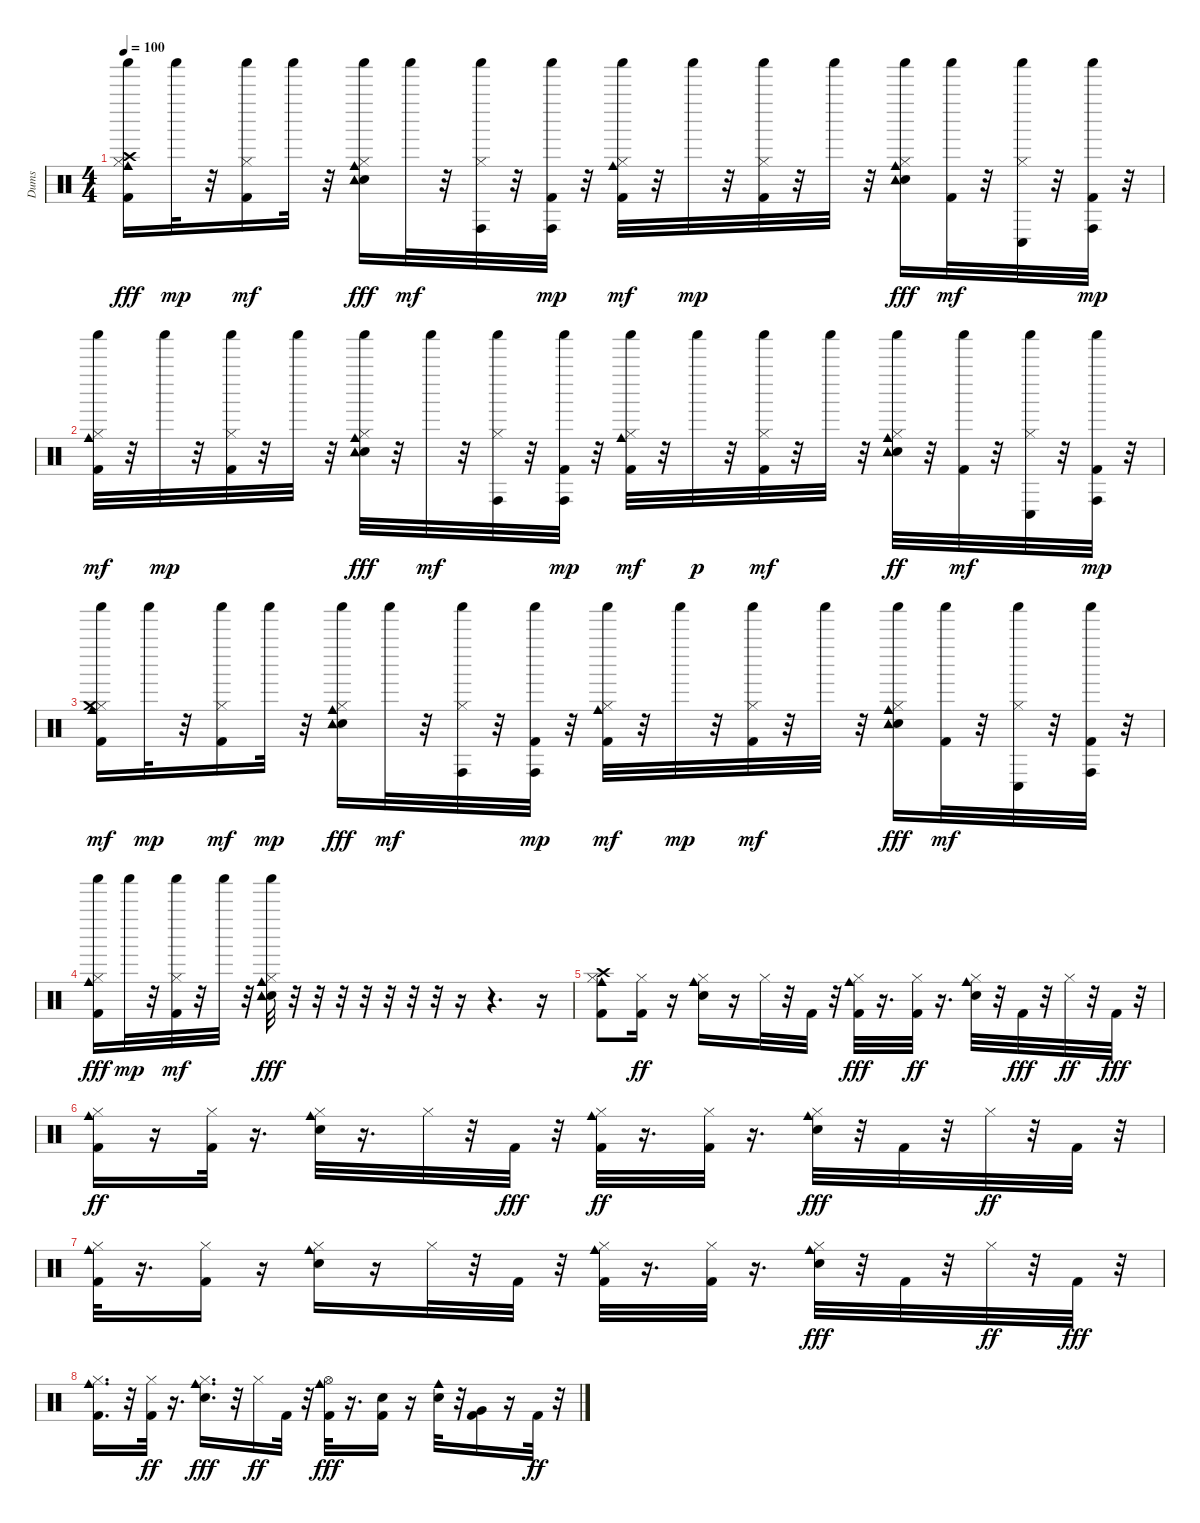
\track ("Dums" "Dums") {instrument percussion}
\staff {score}
\articulation defaults
\ts (4 4)
\tempo 100
\clef neutral
\ks c
("Kick (hit) 2" "Hi-Hat (closed)" "Cowbell medium (hit)" "Crash high (hit)" "Shaker (hit)").16{dy fff} "Shaker (hit)".32{dy mp} r.32 ("Kick (hit) 2" "Hi-Hat (closed)" "Shaker (hit)").16{dy mf} "Shaker (hit)".32 r.32 ("Electric Snare (hit)" "Hi-Hat (closed)" "Cowbell medium (hit)" "Shaker (hit)" "Tambourine (hit)").16{dy fff} "Shaker (hit)".32{dy mf} r.32 ("Hi-Hat (closed)" "Conga high (hit)" "Shaker (hit)").32 r.32 ("Kick (hit) 2" "Conga high (hit)" "Shaker (hit)").32{dy mp} r.32 ("Kick (hit) 2" "Hi-Hat (closed)" "Cowbell medium (hit)" "Shaker (hit)").32{dy mf} r.32 "Shaker (hit)".32{dy mp} r.32 ("Kick (hit) 2" "Hi-Hat (closed)" "Shaker (hit)").32 r.32 "Shaker (hit)".32 r.32 ("Electric Snare (hit)" "Hi-Hat (closed)" "Cowbell medium (hit)" "Shaker (hit)" "Tambourine (hit)").16{dy fff} ("Kick (hit) 2" "Shaker (hit)").32{dy mf} r.32 ("Hi-Hat (closed)" "Conga low (hit)" "Shaker (hit)").32 r.32 ("Kick (hit) 2" "Conga high (hit)" "Shaker (hit)").32{dy mp} r.32 |
("Kick (hit) 2" "Hi-Hat (closed)" "Cowbell medium (hit)" "Shaker (hit)").32{dy mf} r.32 "Shaker (hit)".32{dy mp} r.32 ("Kick (hit) 2" "Hi-Hat (closed)" "Shaker (hit)").32 r.32 "Shaker (hit)".32 r.32 ("Electric Snare (hit)" "Hi-Hat (closed)" "Cowbell medium (hit)" "Shaker (hit)" "Tambourine (hit)").32{dy fff} r.32 "Shaker (hit)".32{dy mf} r.32 ("Hi-Hat (closed)" "Conga high (hit)" "Shaker (hit)").32 r.32 ("Kick (hit) 2" "Conga high (hit)" "Shaker (hit)").32{dy mp} r.32 ("Kick (hit) 2" "Hi-Hat (closed)" "Cowbell medium (hit)" "Shaker (hit)").32{dy mf} r.32 "Shaker (hit)".32{dy p} r.32 ("Kick (hit) 2" "Hi-Hat (closed)" "Shaker (hit)").32{dy mf} r.32 "Shaker (hit)".32 r.32 ("Electric Snare (hit)" "Hi-Hat (closed)" "Cowbell medium (hit)" "Shaker (hit)" "Tambourine (hit)").32{dy ff} r.32 ("Kick (hit) 2" "Shaker (hit)").32{dy mf} r.32 ("Hi-Hat (closed)" "Conga low (hit)" "Shaker (hit)").32 r.32 ("Kick (hit) 2" "Conga high (hit)" "Shaker (hit)").32{dy mp} r.32 |
("Kick (hit) 2" "Hi-Hat (closed)" "Cowbell medium (hit)" "Crash medium (hit)" "Shaker (hit)").16{dy mf} "Shaker (hit)".32{dy mp} r.32 ("Kick (hit) 2" "Hi-Hat (closed)" "Shaker (hit)").16{dy mf} "Shaker (hit)".32{dy mp} r.32 ("Electric Snare (hit)" "Hi-Hat (closed)" "Cowbell medium (hit)" "Shaker (hit)" "Tambourine (hit)").16{dy fff} "Shaker (hit)".32{dy mf} r.32 ("Hi-Hat (closed)" "Conga high (hit)" "Shaker (hit)").32 r.32 ("Kick (hit) 2" "Conga high (hit)" "Shaker (hit)").32{dy mp} r.32 ("Kick (hit) 2" "Hi-Hat (closed)" "Cowbell medium (hit)" "Shaker (hit)").32{dy mf} r.32 "Shaker (hit)".32{dy mp} r.32 ("Kick (hit) 2" "Hi-Hat (closed)" "Shaker (hit)").32{dy mf} r.32 "Shaker (hit)".32 r.32 ("Electric Snare (hit)" "Hi-Hat (closed)" "Cowbell medium (hit)" "Shaker (hit)" "Tambourine (hit)").16{dy fff} ("Kick (hit) 2" "Shaker (hit)").32{dy mf} r.32 ("Hi-Hat (closed)" "Conga low (hit)" "Shaker (hit)").32 r.32 ("Kick (hit) 2" "Conga high (hit)" "Shaker (hit)").32 r.32 |
("Kick (hit) 2" "Hi-Hat (closed)" "Cowbell medium (hit)" "Shaker (hit)").16{dy fff} "Shaker (hit)".32{dy mp} r.32 ("Kick (hit) 2" "Hi-Hat (closed)" "Shaker (hit)").32{dy mf} r.32 "Shaker (hit)".32 r.32 ("Electric Snare (hit)" "Hi-Hat (closed)" "Cowbell medium (hit)" "Shaker (hit)" "Tambourine (hit)").32{dy fff} r.32 r.32 r.32 r.32 r.32 r.32 r.32 r.16 r.4{d} r.16 |
("Kick (hit) 2" "Hi-Hat (closed)" "Cowbell medium (hit)" "Crash high (hit)").8 ("Kick (hit) 2" "Hi-Hat (closed)").16{dy ff} r.16 ("Electric Snare (hit)" "Hi-Hat (closed)" "Cowbell medium (hit)").16 r.16 "Hi-Hat (closed)".32 r.32 "Kick (hit) 2".32 r.32 ("Kick (hit) 2" "Hi-Hat (closed)" "Cowbell medium (hit)").32{dy fff} r.16{d} ("Kick (hit) 2" "Hi-Hat (closed)").32{dy ff} r.16{d} ("Electric Snare (hit)" "Hi-Hat (closed)" "Cowbell medium (hit)").32 r.32 "Kick (hit) 2".32{dy fff} r.32 "Hi-Hat (closed)".32{dy ff} r.32 "Kick (hit) 2".32{dy fff} r.32 |
("Kick (hit) 2" "Hi-Hat (closed)" "Cowbell medium (hit)").16{dy ff} r.16 ("Kick (hit) 2" "Hi-Hat (closed)").32 r.16{d} ("Electric Snare (hit)" "Hi-Hat (closed)" "Cowbell medium (hit)").32 r.16{d} "Hi-Hat (closed)".32 r.32 "Kick (hit) 2".32{dy fff} r.32 ("Kick (hit) 2" "Hi-Hat (closed)" "Cowbell medium (hit)").32{dy ff} r.16{d} ("Kick (hit) 2" "Hi-Hat (closed)").32 r.16{d} ("Electric Snare (hit)" "Hi-Hat (closed)" "Cowbell medium (hit)").32{dy fff} r.32 "Kick (hit) 2".32 r.32 "Hi-Hat (closed)".32{dy ff} r.32 "Kick (hit) 2".32 r.32 |
("Kick (hit) 2" "Hi-Hat (closed)" "Cowbell medium (hit)").32 r.16{d} ("Kick (hit) 2" "Hi-Hat (closed)").16 r.16 ("Electric Snare (hit)" "Hi-Hat (closed)" "Cowbell medium (hit)").16 r.16 "Hi-Hat (closed)".32 r.32 "Kick (hit) 2".32 r.32 ("Kick (hit) 2" "Hi-Hat (closed)" "Cowbell medium (hit)").32 r.16{d} ("Kick (hit) 2" "Hi-Hat (closed)").32 r.16{d} ("Electric Snare (hit)" "Hi-Hat (closed)" "Cowbell medium (hit)").32{dy fff} r.32 "Kick (hit) 2".32 r.32 "Hi-Hat (closed)".32{dy ff} r.32 "Kick (hit) 2".32{dy fff} r.32 |
("Kick (hit) 2" "Hi-Hat (closed)" "Cowbell medium (hit)").16{d} r.32 ("Kick (hit) 2" "Hi-Hat (closed)").32{dy ff} r.16{d} ("Electric Snare (hit)" "Hi-Hat (closed)" "Cowbell medium (hit)").16{d dy fff} r.32 "Hi-Hat (closed)".16{dy ff} "Kick (hit) 2".32 r.32 ("Kick (hit) 2" "Hi-Hat (open)" "Cowbell medium (hit)").32{dy fff} r.16{d} ("Kick (hit) 2" "Electric Snare (hit)").16 r.16 ("Electric Snare (hit)" "Cowbell medium (hit)").32 r.32 ("Kick (hit) 2" "Very Low Tom (hit)").16 r.16 "Kick (hit) 2".32{dy ff} r.32
